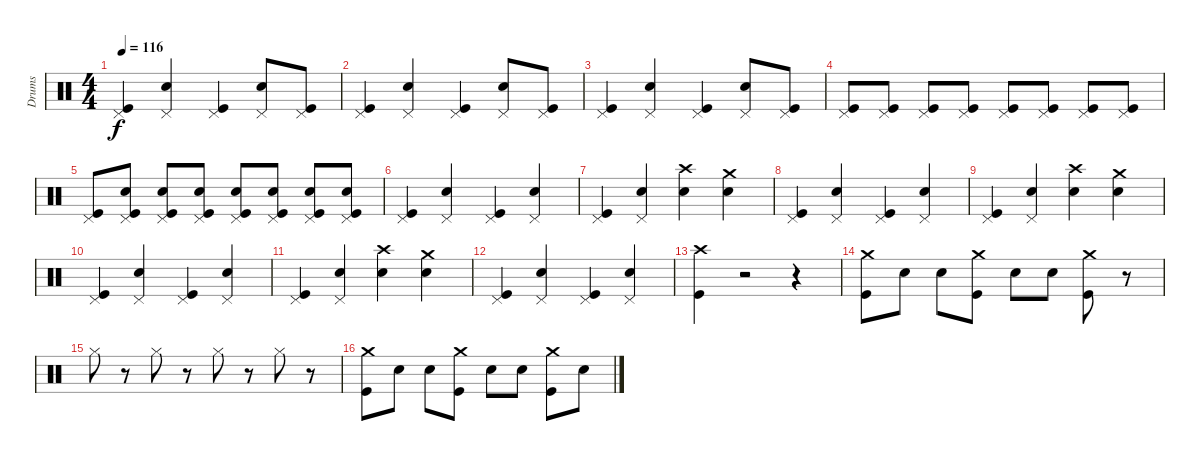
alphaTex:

\track ("Drums" "Drums") {instrument percussion}
\staff {score}
\articulation defaults
\ts (4 4)
\tempo 116
\clef neutral
\ks c
("Pedal Hi-Hat (hit)" "Kick (hit)").4{dy f} ("Pedal Hi-Hat (hit)" "Electric Snare (hit)").4 ("Pedal Hi-Hat (hit)" "Kick (hit)").4 ("Pedal Hi-Hat (hit)" "Electric Snare (hit)").8 ("Pedal Hi-Hat (hit)" "Kick (hit)").8 |
("Pedal Hi-Hat (hit)" "Kick (hit)").4 ("Pedal Hi-Hat (hit)" "Electric Snare (hit)").4 ("Pedal Hi-Hat (hit)" "Kick (hit)").4 ("Pedal Hi-Hat (hit)" "Electric Snare (hit)").8 ("Pedal Hi-Hat (hit)" "Kick (hit)").8 |
("Pedal Hi-Hat (hit)" "Kick (hit)").4 ("Pedal Hi-Hat (hit)" "Electric Snare (hit)").4 ("Pedal Hi-Hat (hit)" "Kick (hit)").4 ("Pedal Hi-Hat (hit)" "Electric Snare (hit)").8 ("Pedal Hi-Hat (hit)" "Kick (hit)").8 |
("Kick (hit)" "Pedal Hi-Hat (hit)").8 ("Kick (hit)" "Pedal Hi-Hat (hit)").8 ("Kick (hit)" "Pedal Hi-Hat (hit)").8 ("Kick (hit)" "Pedal Hi-Hat (hit)").8 ("Kick (hit)" "Pedal Hi-Hat (hit)").8 ("Pedal Hi-Hat (hit)" "Kick (hit)").8 ("Kick (hit)" "Pedal Hi-Hat (hit)").8 ("Pedal Hi-Hat (hit)" "Kick (hit)").8 |
("Pedal Hi-Hat (hit)" "Kick (hit)").8 ("Snare (hit) 2" "Pedal Hi-Hat (hit)" "Kick (hit)").8 ("Snare (hit) 2" "Pedal Hi-Hat (hit)" "Kick (hit)").8 ("Snare (hit) 2" "Pedal Hi-Hat (hit)" "Kick (hit)").8 ("Snare (hit) 2" "Pedal Hi-Hat (hit)" "Kick (hit)").8 ("Snare (hit) 2" "Pedal Hi-Hat (hit)" "Kick (hit)").8 ("Snare (hit) 2" "Pedal Hi-Hat (hit)" "Kick (hit)").8 ("Snare (hit) 2" "Pedal Hi-Hat (hit)" "Kick (hit)").8 |
("Pedal Hi-Hat (hit)" "Kick (hit)").4 ("Pedal Hi-Hat (hit)" "Electric Snare (hit)").4 ("Pedal Hi-Hat (hit)" "Kick (hit)").4 ("Pedal Hi-Hat (hit)" "Electric Snare (hit)").4 |
("Pedal Hi-Hat (hit)" "Kick (hit)").4 ("Pedal Hi-Hat (hit)" "Electric Snare (hit)").4 ("Electric Snare (hit)" "Crash high (hit)").4 ("Crash medium (hit)" "Electric Snare (hit)").4 |
("Pedal Hi-Hat (hit)" "Kick (hit)").4 ("Pedal Hi-Hat (hit)" "Electric Snare (hit)").4 ("Pedal Hi-Hat (hit)" "Kick (hit)").4 ("Pedal Hi-Hat (hit)" "Electric Snare (hit)").4 |
("Pedal Hi-Hat (hit)" "Kick (hit)").4 ("Pedal Hi-Hat (hit)" "Electric Snare (hit)").4 ("Electric Snare (hit)" "Crash high (hit)").4 ("Crash medium (hit)" "Electric Snare (hit)").4 |
("Pedal Hi-Hat (hit)" "Kick (hit)").4 ("Pedal Hi-Hat (hit)" "Electric Snare (hit)").4 ("Pedal Hi-Hat (hit)" "Kick (hit)").4 ("Pedal Hi-Hat (hit)" "Electric Snare (hit)").4 |
("Pedal Hi-Hat (hit)" "Kick (hit)").4 ("Pedal Hi-Hat (hit)" "Electric Snare (hit)").4 ("Electric Snare (hit)" "Crash high (hit)").4 ("Crash medium (hit)" "Electric Snare (hit)").4 |
("Pedal Hi-Hat (hit)" "Kick (hit)").4 ("Pedal Hi-Hat (hit)" "Electric Snare (hit)").4 ("Pedal Hi-Hat (hit)" "Kick (hit)").4 ("Pedal Hi-Hat (hit)" "Electric Snare (hit)").4 |
("Crash high (hit)" "Kick (hit)").4 r.2 r.4 |
("Crash medium (hit)" "Kick (hit)").8 "Electric Snare (hit)".8 "Electric Snare (hit)".8 ("Crash medium (hit)" "Kick (hit)").8 "Electric Snare (hit)".8 "Electric Snare (hit)".8 ("Crash medium (hit)" "Kick (hit)").8 r.8 |
"Hi-Hat (closed)".8 r.8 "Hi-Hat (closed)".8 r.8 "Hi-Hat (closed)".8 r.8 "Hi-Hat (closed)".8 r.8 |
("Crash medium (hit)" "Kick (hit)").8 "Electric Snare (hit)".8 "Electric Snare (hit)".8 ("Crash medium (hit)" "Kick (hit)").8 "Electric Snare (hit)".8 "Electric Snare (hit)".8 ("Crash medium (hit)" "Kick (hit)").8 "Electric Snare (hit)".8
